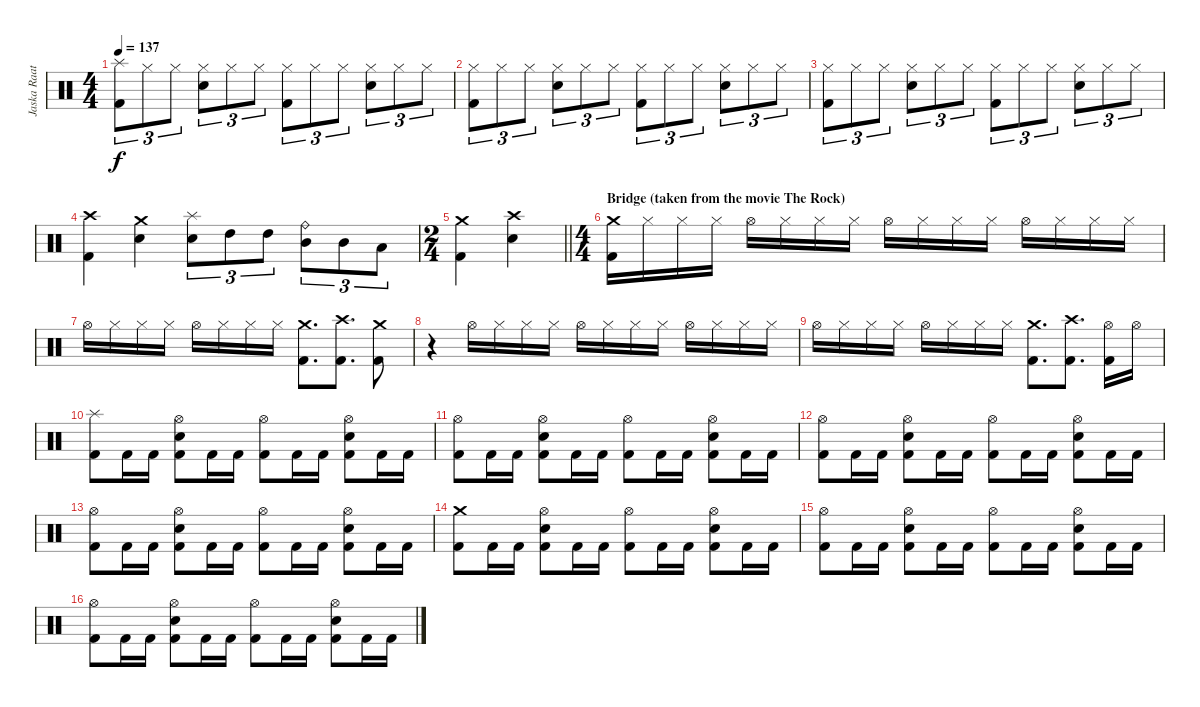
\track ("Jaska Raatikainen" "Jaska Raat") {instrument percussion}
\staff {score}
\articulation defaults
\ts (4 4)
\tempo 137
\clef neutral
\ks c
("Splash (hit)" "Kick (hit) 2").8{tu (3 2) dy f} "Hi-Hat (closed)".8{tu (3 2)} "Hi-Hat (closed)".8{tu (3 2)} ("Hi-Hat (closed)" "Electric Snare (hit)").8{tu (3 2)} "Hi-Hat (closed)".8{tu (3 2)} "Hi-Hat (closed)".8{tu (3 2)} ("Hi-Hat (closed)" "Kick (hit) 2").8{tu (3 2)} "Hi-Hat (closed)".8{tu (3 2)} "Hi-Hat (closed)".8{tu (3 2)} ("Hi-Hat (closed)" "Electric Snare (hit)").8{tu (3 2)} "Hi-Hat (closed)".8{tu (3 2)} "Hi-Hat (closed)".8{tu (3 2)} |
("Hi-Hat (closed)" "Kick (hit) 2").8{tu (3 2)} "Hi-Hat (closed)".8{tu (3 2)} "Hi-Hat (closed)".8{tu (3 2)} ("Hi-Hat (closed)" "Electric Snare (hit)").8{tu (3 2)} "Hi-Hat (closed)".8{tu (3 2)} "Hi-Hat (closed)".8{tu (3 2)} ("Hi-Hat (closed)" "Kick (hit) 2").8{tu (3 2)} "Hi-Hat (closed)".8{tu (3 2)} "Hi-Hat (closed)".8{tu (3 2)} ("Hi-Hat (closed)" "Electric Snare (hit)").8{tu (3 2)} "Hi-Hat (closed)".8{tu (3 2)} "Hi-Hat (closed)".8{tu (3 2)} |
("Hi-Hat (closed)" "Kick (hit) 2").8{tu (3 2)} "Hi-Hat (closed)".8{tu (3 2)} "Hi-Hat (closed)".8{tu (3 2)} ("Hi-Hat (closed)" "Electric Snare (hit)").8{tu (3 2)} "Hi-Hat (closed)".8{tu (3 2)} "Hi-Hat (closed)".8{tu (3 2)} ("Hi-Hat (closed)" "Kick (hit) 2").8{tu (3 2)} "Hi-Hat (closed)".8{tu (3 2)} "Hi-Hat (closed)".8{tu (3 2)} ("Hi-Hat (closed)" "Electric Snare (hit)").8{tu (3 2)} "Hi-Hat (closed)".8{tu (3 2)} "Hi-Hat (closed)".8{tu (3 2)} |
("Crash high (hit)" "Kick (hit) 2").4 ("Crash medium (hit)" "Electric Snare (hit)").4 ("Splash (hit)" "Electric Snare (hit)").8{tu (3 2)} "High Tom (hit)".8{tu (3 2)} "High Tom (hit)".8{tu (3 2)} ("Ride (bell)" "Mid Tom (hit)").8{tu (3 2)} "Mid Tom (hit)".8{tu (3 2)} "Low Tom (hit)".8{tu (3 2)} |
\ts (2 4)
\barLineRight lightlight
("Crash medium (hit)" "Kick (hit) 2").4 ("Crash high (hit)" "Electric Snare (hit)").4 |
\ts (4 4)
\section ("" "Bridge (taken from the movie The Rock)")
("Crash medium (hit)" "Kick (hit) 2").16 "Hi-Hat (closed)".16 "Hi-Hat (closed)".16 "Hi-Hat (closed)".16 "Hi-Hat (open)".16 "Hi-Hat (closed)".16 "Hi-Hat (closed)".16 "Hi-Hat (closed)".16 "Hi-Hat (open)".16 "Hi-Hat (closed)".16 "Hi-Hat (closed)".16 "Hi-Hat (closed)".16 "Hi-Hat (open)".16 "Hi-Hat (closed)".16 "Hi-Hat (closed)".16 "Hi-Hat (closed)".16 |
"Hi-Hat (open)".16 "Hi-Hat (closed)".16 "Hi-Hat (closed)".16 "Hi-Hat (closed)".16 "Hi-Hat (open)".16 "Hi-Hat (closed)".16 "Hi-Hat (closed)".16 "Hi-Hat (closed)".16 ("Crash medium (hit)" "Kick (hit) 2").8{d} ("Crash high (hit)" "Kick (hit) 2").8{d} ("Crash medium (hit)" "Kick (hit) 2").8 |
r.4 "Hi-Hat (open)".16 "Hi-Hat (closed)".16 "Hi-Hat (closed)".16 "Hi-Hat (closed)".16 "Hi-Hat (open)".16 "Hi-Hat (closed)".16 "Hi-Hat (closed)".16 "Hi-Hat (closed)".16 "Hi-Hat (open)".16 "Hi-Hat (closed)".16 "Hi-Hat (closed)".16 "Hi-Hat (closed)".16 |
"Hi-Hat (open)".16 "Hi-Hat (closed)".16 "Hi-Hat (closed)".16 "Hi-Hat (closed)".16 "Hi-Hat (open)".16 "Hi-Hat (closed)".16 "Hi-Hat (closed)".16 "Hi-Hat (closed)".16 ("Crash medium (hit)" "Kick (hit) 2").8{d} ("Crash high (hit)" "Kick (hit) 2").8{d} ("Hi-Hat (open)" "Kick (hit) 2").16 "Hi-Hat (open)".16 |
("Splash (hit)" "Kick (hit) 2").8 "Kick (hit) 2".16 "Kick (hit) 2".16 ("Hi-Hat (open)" "Electric Snare (hit)" "Kick (hit) 2").8 "Kick (hit) 2".16 "Kick (hit) 2".16 ("Hi-Hat (open)" "Kick (hit) 2").8 "Kick (hit) 2".16 "Kick (hit) 2".16 ("Hi-Hat (open)" "Electric Snare (hit)" "Kick (hit) 2").8 "Kick (hit) 2".16 "Kick (hit) 2".16 |
("Hi-Hat (open)" "Kick (hit) 2").8 "Kick (hit) 2".16 "Kick (hit) 2".16 ("Hi-Hat (open)" "Electric Snare (hit)" "Kick (hit) 2").8 "Kick (hit) 2".16 "Kick (hit) 2".16 ("Hi-Hat (open)" "Kick (hit) 2").8 "Kick (hit) 2".16 "Kick (hit) 2".16 ("Hi-Hat (open)" "Electric Snare (hit)" "Kick (hit) 2").8 "Kick (hit) 2".16 "Kick (hit) 2".16 |
("Hi-Hat (open)" "Kick (hit) 2").8 "Kick (hit) 2".16 "Kick (hit) 2".16 ("Hi-Hat (open)" "Electric Snare (hit)" "Kick (hit) 2").8 "Kick (hit) 2".16 "Kick (hit) 2".16 ("Hi-Hat (open)" "Kick (hit) 2").8 "Kick (hit) 2".16 "Kick (hit) 2".16 ("Hi-Hat (open)" "Electric Snare (hit)" "Kick (hit) 2").8 "Kick (hit) 2".16 "Kick (hit) 2".16 |
("Hi-Hat (open)" "Kick (hit) 2").8 "Kick (hit) 2".16 "Kick (hit) 2".16 ("Hi-Hat (open)" "Electric Snare (hit)" "Kick (hit) 2").8 "Kick (hit) 2".16 "Kick (hit) 2".16 ("Hi-Hat (open)" "Kick (hit) 2").8 "Kick (hit) 2".16 "Kick (hit) 2".16 ("Hi-Hat (open)" "Electric Snare (hit)" "Kick (hit) 2").8 "Kick (hit) 2".16 "Kick (hit) 2".16 |
("Crash medium (hit)" "Kick (hit) 2").8 "Kick (hit) 2".16 "Kick (hit) 2".16 ("Hi-Hat (open)" "Electric Snare (hit)" "Kick (hit) 2").8 "Kick (hit) 2".16 "Kick (hit) 2".16 ("Hi-Hat (open)" "Kick (hit) 2").8 "Kick (hit) 2".16 "Kick (hit) 2".16 ("Hi-Hat (open)" "Electric Snare (hit)" "Kick (hit) 2").8 "Kick (hit) 2".16 "Kick (hit) 2".16 |
("Hi-Hat (open)" "Kick (hit) 2").8 "Kick (hit) 2".16 "Kick (hit) 2".16 ("Hi-Hat (open)" "Electric Snare (hit)" "Kick (hit) 2").8 "Kick (hit) 2".16 "Kick (hit) 2".16 ("Hi-Hat (open)" "Kick (hit) 2").8 "Kick (hit) 2".16 "Kick (hit) 2".16 ("Hi-Hat (open)" "Electric Snare (hit)" "Kick (hit) 2").8 "Kick (hit) 2".16 "Kick (hit) 2".16 |
("Hi-Hat (open)" "Kick (hit) 2").8 "Kick (hit) 2".16 "Kick (hit) 2".16 ("Hi-Hat (open)" "Electric Snare (hit)" "Kick (hit) 2").8 "Kick (hit) 2".16 "Kick (hit) 2".16 ("Hi-Hat (open)" "Kick (hit) 2").8 "Kick (hit) 2".16 "Kick (hit) 2".16 ("Hi-Hat (open)" "Electric Snare (hit)" "Kick (hit) 2").8 "Kick (hit) 2".16 "Kick (hit) 2".16
